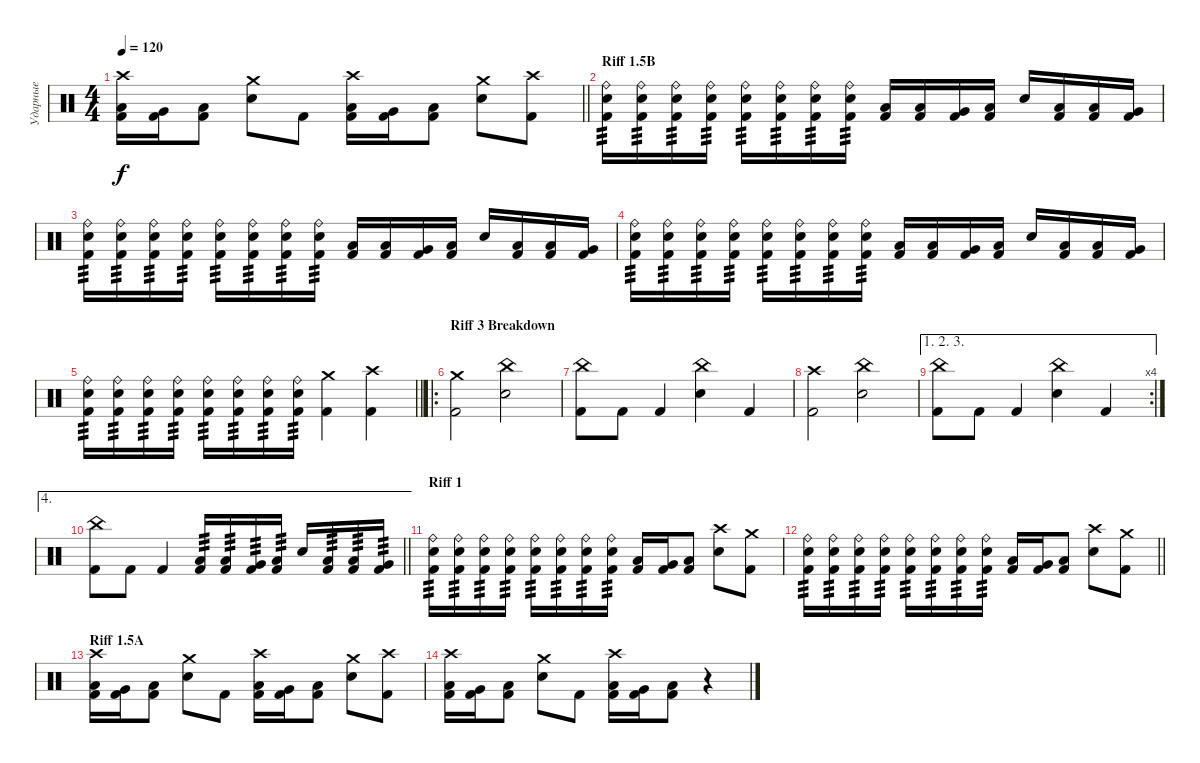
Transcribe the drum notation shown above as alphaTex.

\track ("Ударные" "Ударные") {instrument percussion}
\staff {score}
\articulation defaults
\ts (4 4)
\tempo 120
\clef neutral
\barLineRight lightlight
\ks c
("Crash high (hit)" "Low Tom (hit)" "Kick (hit) 2").16{dy f} ("Very Low Tom (hit)" "Kick (hit) 2").16 ("Low Tom (hit)" "Kick (hit) 2").8 ("Crash medium (hit)" "Electric Snare (hit)").8 "Kick (hit) 2".8 ("Crash high (hit)" "Low Tom (hit)" "Kick (hit) 2").16 ("Very Low Tom (hit)" "Kick (hit) 2").16 ("Low Tom (hit)" "Kick (hit) 2").8 ("Crash medium (hit)" "Electric Snare (hit)").8 ("Crash high (hit)" "Kick (hit) 2").8 |
\section ("" "Riff 1.5B")
("Ride (bell)" "Electric Snare (hit)" "Kick (hit) 2").16{tp 3} ("Ride (bell)" "Electric Snare (hit)" "Kick (hit) 2").16{tp 3} ("Ride (bell)" "Electric Snare (hit)" "Kick (hit) 2").16{tp 3} ("Ride (bell)" "Electric Snare (hit)" "Kick (hit) 2").16{tp 3} ("Ride (bell)" "Electric Snare (hit)" "Kick (hit) 2").16{tp 3} ("Ride (bell)" "Electric Snare (hit)" "Kick (hit) 2").16{tp 3} ("Ride (bell)" "Electric Snare (hit)" "Kick (hit) 2").16{tp 3} ("Ride (bell)" "Electric Snare (hit)" "Kick (hit) 2").16{tp 3} ("Low Tom (hit)" "Kick (hit) 2").16 ("Low Tom (hit)" "Kick (hit) 2").16 ("Very Low Tom (hit)" "Kick (hit) 2").16 ("Low Tom (hit)" "Kick (hit) 2").16 "Electric Snare (hit)".16 ("Low Tom (hit)" "Kick (hit) 2").16 ("Low Tom (hit)" "Kick (hit) 2").16 ("Very Low Tom (hit)" "Kick (hit) 2").16 |
("Ride (bell)" "Electric Snare (hit)" "Kick (hit) 2").16{tp 3} ("Ride (bell)" "Electric Snare (hit)" "Kick (hit) 2").16{tp 3} ("Ride (bell)" "Electric Snare (hit)" "Kick (hit) 2").16{tp 3} ("Ride (bell)" "Electric Snare (hit)" "Kick (hit) 2").16{tp 3} ("Ride (bell)" "Electric Snare (hit)" "Kick (hit) 2").16{tp 3} ("Ride (bell)" "Electric Snare (hit)" "Kick (hit) 2").16{tp 3} ("Ride (bell)" "Electric Snare (hit)" "Kick (hit) 2").16{tp 3} ("Ride (bell)" "Electric Snare (hit)" "Kick (hit) 2").16{tp 3} ("Low Tom (hit)" "Kick (hit) 2").16 ("Low Tom (hit)" "Kick (hit) 2").16 ("Very Low Tom (hit)" "Kick (hit) 2").16 ("Low Tom (hit)" "Kick (hit) 2").16 "Electric Snare (hit)".16 ("Low Tom (hit)" "Kick (hit) 2").16 ("Low Tom (hit)" "Kick (hit) 2").16 ("Very Low Tom (hit)" "Kick (hit) 2").16 |
("Ride (bell)" "Electric Snare (hit)" "Kick (hit) 2").16{tp 3} ("Ride (bell)" "Electric Snare (hit)" "Kick (hit) 2").16{tp 3} ("Ride (bell)" "Electric Snare (hit)" "Kick (hit) 2").16{tp 3} ("Ride (bell)" "Electric Snare (hit)" "Kick (hit) 2").16{tp 3} ("Ride (bell)" "Electric Snare (hit)" "Kick (hit) 2").16{tp 3} ("Ride (bell)" "Electric Snare (hit)" "Kick (hit) 2").16{tp 3} ("Ride (bell)" "Electric Snare (hit)" "Kick (hit) 2").16{tp 3} ("Ride (bell)" "Electric Snare (hit)" "Kick (hit) 2").16{tp 3} ("Low Tom (hit)" "Kick (hit) 2").16 ("Low Tom (hit)" "Kick (hit) 2").16 ("Very Low Tom (hit)" "Kick (hit) 2").16 ("Low Tom (hit)" "Kick (hit) 2").16 "Electric Snare (hit)".16 ("Low Tom (hit)" "Kick (hit) 2").16 ("Low Tom (hit)" "Kick (hit) 2").16 ("Very Low Tom (hit)" "Kick (hit) 2").16 |
\barLineRight lightlight
("Ride (bell)" "Electric Snare (hit)" "Kick (hit) 2").16{tp 3} ("Ride (bell)" "Electric Snare (hit)" "Kick (hit) 2").16{tp 3} ("Ride (bell)" "Electric Snare (hit)" "Kick (hit) 2").16{tp 3} ("Ride (bell)" "Electric Snare (hit)" "Kick (hit) 2").16{tp 3} ("Ride (bell)" "Electric Snare (hit)" "Kick (hit) 2").16{tp 3} ("Ride (bell)" "Electric Snare (hit)" "Kick (hit) 2").16{tp 3} ("Ride (bell)" "Electric Snare (hit)" "Kick (hit) 2").16{tp 3} ("Ride (bell)" "Electric Snare (hit)" "Kick (hit) 2").16{tp 3} ("Crash medium (hit)" "Kick (hit) 2").4 ("Crash high (hit)" "Kick (hit) 2").4 |
\ro
\section ("" "Riff 3 Breakdown")
("Crash medium (hit)" "Kick (hit) 2").2 ("China (hit)" "Electric Snare (hit)").2 |
("China (hit)" "Kick (hit) 2").8 "Kick (hit) 2".8 "Kick (hit) 2".4 ("China (hit)" "Electric Snare (hit)").4 "Kick (hit) 2".4 |
("Crash high (hit)" "Kick (hit) 2").2 ("China (hit)" "Electric Snare (hit)").2 |
\ae (1 2 3)
\rc 4
("China (hit)" "Kick (hit) 2").8 "Kick (hit) 2".8 "Kick (hit) 2".4 ("China (hit)" "Electric Snare (hit)").4 "Kick (hit) 2".4 |
\ae 4
\barLineRight lightlight
("China (hit)" "Kick (hit) 2").8 "Kick (hit) 2".8 "Kick (hit) 2".4 ("Low Tom (hit)" "Kick (hit) 2").16{tp 3} ("Low Tom (hit)" "Kick (hit) 2").16{tp 3} ("Very Low Tom (hit)" "Kick (hit) 2").16{tp 3} ("Low Tom (hit)" "Kick (hit) 2").16{tp 3} "Electric Snare (hit)".16 ("Low Tom (hit)" "Kick (hit) 2").16{tp 3} ("Low Tom (hit)" "Kick (hit) 2").16{tp 3} ("Very Low Tom (hit)" "Kick (hit) 2").16{tp 3} |
\section ("" "Riff 1")
("Ride (bell)" "Electric Snare (hit)" "Kick (hit) 2").16{tp 3} ("Ride (bell)" "Electric Snare (hit)" "Kick (hit) 2").16{tp 3} ("Ride (bell)" "Electric Snare (hit)" "Kick (hit) 2").16{tp 3} ("Ride (bell)" "Electric Snare (hit)" "Kick (hit) 2").16{tp 3} ("Ride (bell)" "Electric Snare (hit)" "Kick (hit) 2").16{tp 3} ("Ride (bell)" "Electric Snare (hit)" "Kick (hit) 2").16{tp 3} ("Ride (bell)" "Electric Snare (hit)" "Kick (hit) 2").16{tp 3} ("Ride (bell)" "Electric Snare (hit)" "Kick (hit) 2").16{tp 3} ("Low Tom (hit)" "Kick (hit) 2").16 ("Very Low Tom (hit)" "Kick (hit) 2").16 ("Low Tom (hit)" "Kick (hit) 2").8 ("Crash high (hit)" "Electric Snare (hit)").8 ("Crash medium (hit)" "Kick (hit) 2").8 |
\barLineRight lightlight
("Ride (bell)" "Electric Snare (hit)" "Kick (hit) 2").16{tp 3} ("Ride (bell)" "Electric Snare (hit)" "Kick (hit) 2").16{tp 3} ("Ride (bell)" "Electric Snare (hit)" "Kick (hit) 2").16{tp 3} ("Ride (bell)" "Electric Snare (hit)" "Kick (hit) 2").16{tp 3} ("Ride (bell)" "Electric Snare (hit)" "Kick (hit) 2").16{tp 3} ("Ride (bell)" "Electric Snare (hit)" "Kick (hit) 2").16{tp 3} ("Ride (bell)" "Electric Snare (hit)" "Kick (hit) 2").16{tp 3} ("Ride (bell)" "Electric Snare (hit)" "Kick (hit) 2").16{tp 3} ("Low Tom (hit)" "Kick (hit) 2").16 ("Very Low Tom (hit)" "Kick (hit) 2").16 ("Low Tom (hit)" "Kick (hit) 2").8 ("Crash high (hit)" "Electric Snare (hit)").8 ("Crash medium (hit)" "Kick (hit) 2").8 |
\section ("" "Riff 1.5A")
("Crash high (hit)" "Low Tom (hit)" "Kick (hit) 2").16 ("Very Low Tom (hit)" "Kick (hit) 2").16 ("Low Tom (hit)" "Kick (hit) 2").8 ("Crash medium (hit)" "Electric Snare (hit)").8 "Kick (hit) 2".8 ("Crash high (hit)" "Low Tom (hit)" "Kick (hit) 2").16 ("Very Low Tom (hit)" "Kick (hit) 2").16 ("Low Tom (hit)" "Kick (hit) 2").8 ("Crash medium (hit)" "Electric Snare (hit)").8 ("Crash high (hit)" "Kick (hit) 2").8 |
("Crash high (hit)" "Low Tom (hit)" "Kick (hit) 2").16 ("Very Low Tom (hit)" "Kick (hit) 2").16 ("Low Tom (hit)" "Kick (hit) 2").8 ("Crash medium (hit)" "Electric Snare (hit)").8 "Kick (hit) 2".8 ("Crash high (hit)" "Low Tom (hit)" "Kick (hit) 2").16 ("Very Low Tom (hit)" "Kick (hit) 2").16 ("Low Tom (hit)" "Kick (hit) 2").8 r.4
